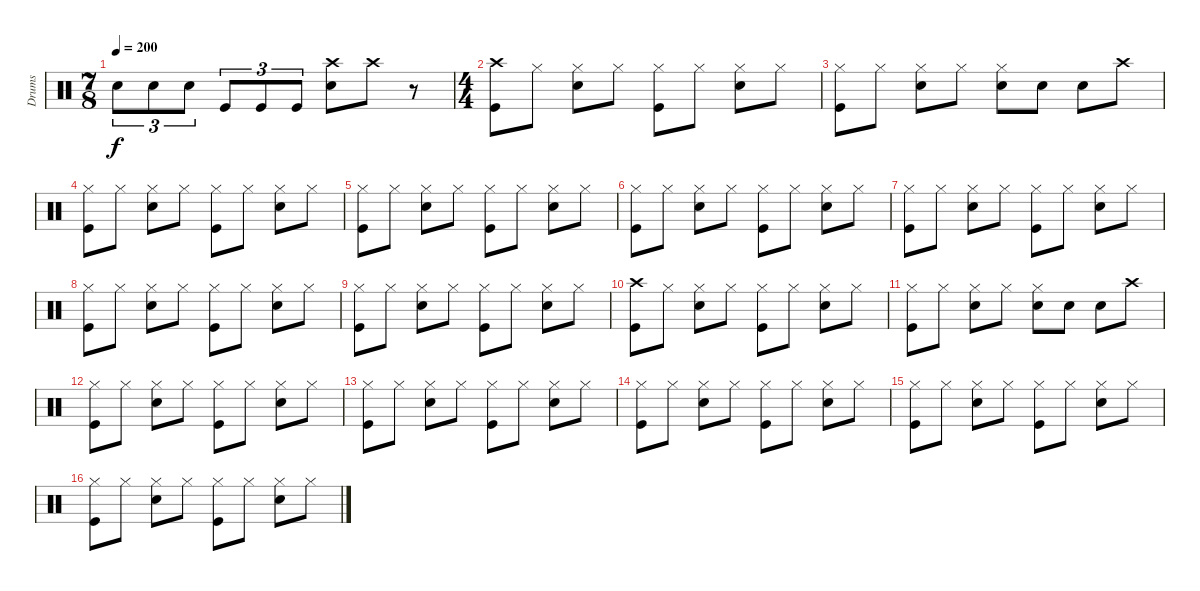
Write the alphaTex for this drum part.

\track ("Drums" "Drums") {instrument percussion}
\staff {score}
\articulation defaults
\ts (7 8)
\tempo 200
\clef neutral
\ks c "Snare (hit) 2".8{tu (3 2) dy f} "Snare (hit) 2".8{tu (3 2)} "Snare (hit) 2".8{tu (3 2)} "Kick (hit)".8{tu (3 2)} "Kick (hit)".8{tu (3 2)} "Kick (hit)".8{tu (3 2)}
("Crash high (hit)" "Snare (hit) 2").8 "Crash high (hit)".8 r.8 |
\ts (4 4)
("Crash high (hit)" "Kick (hit)").8 "Hi-Hat (closed)".8 ("Hi-Hat (closed)" "Snare (hit) 2").8 "Hi-Hat (closed)".8 ("Hi-Hat (closed)" "Kick (hit)").8 "Hi-Hat (closed)".8 ("Hi-Hat (closed)" "Snare (hit) 2").8 "Hi-Hat (closed)".8 |
("Hi-Hat (closed)" "Kick (hit)").8 "Hi-Hat (closed)".8 ("Hi-Hat (closed)" "Snare (hit) 2").8 "Hi-Hat (closed)".8 ("Hi-Hat (closed)" "Snare (hit) 2").8 "Snare (hit) 2".8 "Snare (hit) 2".8 "Crash high (hit)".8 |
("Hi-Hat (closed)" "Kick (hit)").8 "Hi-Hat (closed)".8 ("Hi-Hat (closed)" "Snare (hit) 2").8 "Hi-Hat (closed)".8 ("Hi-Hat (closed)" "Kick (hit)").8 "Hi-Hat (closed)".8 ("Hi-Hat (closed)" "Snare (hit) 2").8 "Hi-Hat (closed)".8 |
("Hi-Hat (closed)" "Kick (hit)").8 "Hi-Hat (closed)".8 ("Hi-Hat (closed)" "Snare (hit) 2").8 "Hi-Hat (closed)".8 ("Hi-Hat (closed)" "Kick (hit)").8 "Hi-Hat (closed)".8 ("Hi-Hat (closed)" "Snare (hit) 2").8 "Hi-Hat (closed)".8 |
("Hi-Hat (closed)" "Kick (hit)").8 "Hi-Hat (closed)".8 ("Hi-Hat (closed)" "Snare (hit) 2").8 "Hi-Hat (closed)".8 ("Hi-Hat (closed)" "Kick (hit)").8 "Hi-Hat (closed)".8 ("Hi-Hat (closed)" "Snare (hit) 2").8 "Hi-Hat (closed)".8 |
("Hi-Hat (closed)" "Kick (hit)").8 "Hi-Hat (closed)".8 ("Hi-Hat (closed)" "Snare (hit) 2").8 "Hi-Hat (closed)".8 ("Hi-Hat (closed)" "Kick (hit)").8 "Hi-Hat (closed)".8 ("Hi-Hat (closed)" "Snare (hit) 2").8 "Hi-Hat (closed)".8 |
("Hi-Hat (closed)" "Kick (hit)").8 "Hi-Hat (closed)".8 ("Hi-Hat (closed)" "Snare (hit) 2").8 "Hi-Hat (closed)".8 ("Hi-Hat (closed)" "Kick (hit)").8 "Hi-Hat (closed)".8 ("Hi-Hat (closed)" "Snare (hit) 2").8 "Hi-Hat (closed)".8 |
("Hi-Hat (closed)" "Kick (hit)").8 "Hi-Hat (closed)".8 ("Hi-Hat (closed)" "Snare (hit) 2").8 "Hi-Hat (closed)".8 ("Hi-Hat (closed)" "Kick (hit)").8 "Hi-Hat (closed)".8 ("Hi-Hat (closed)" "Snare (hit) 2").8 "Hi-Hat (closed)".8 |
("Crash high (hit)" "Kick (hit)").8 "Hi-Hat (closed)".8 ("Hi-Hat (closed)" "Snare (hit) 2").8 "Hi-Hat (closed)".8 ("Hi-Hat (closed)" "Kick (hit)").8 "Hi-Hat (closed)".8 ("Hi-Hat (closed)" "Snare (hit) 2").8 "Hi-Hat (closed)".8 |
("Hi-Hat (closed)" "Kick (hit)").8 "Hi-Hat (closed)".8 ("Hi-Hat (closed)" "Snare (hit) 2").8 "Hi-Hat (closed)".8 ("Hi-Hat (closed)" "Snare (hit) 2").8 "Snare (hit) 2".8 "Snare (hit) 2".8 "Crash high (hit)".8 |
("Hi-Hat (closed)" "Kick (hit)").8 "Hi-Hat (closed)".8 ("Hi-Hat (closed)" "Snare (hit) 2").8 "Hi-Hat (closed)".8 ("Hi-Hat (closed)" "Kick (hit)").8 "Hi-Hat (closed)".8 ("Hi-Hat (closed)" "Snare (hit) 2").8 "Hi-Hat (closed)".8 |
("Hi-Hat (closed)" "Kick (hit)").8 "Hi-Hat (closed)".8 ("Hi-Hat (closed)" "Snare (hit) 2").8 "Hi-Hat (closed)".8 ("Hi-Hat (closed)" "Kick (hit)").8 "Hi-Hat (closed)".8 ("Hi-Hat (closed)" "Snare (hit) 2").8 "Hi-Hat (closed)".8 |
("Hi-Hat (closed)" "Kick (hit)").8 "Hi-Hat (closed)".8 ("Hi-Hat (closed)" "Snare (hit) 2").8 "Hi-Hat (closed)".8 ("Hi-Hat (closed)" "Kick (hit)").8 "Hi-Hat (closed)".8 ("Hi-Hat (closed)" "Snare (hit) 2").8 "Hi-Hat (closed)".8 |
("Hi-Hat (closed)" "Kick (hit)").8 "Hi-Hat (closed)".8 ("Hi-Hat (closed)" "Snare (hit) 2").8 "Hi-Hat (closed)".8 ("Hi-Hat (closed)" "Kick (hit)").8 "Hi-Hat (closed)".8 ("Hi-Hat (closed)" "Snare (hit) 2").8 "Hi-Hat (closed)".8 |
("Hi-Hat (closed)" "Kick (hit)").8 "Hi-Hat (closed)".8 ("Hi-Hat (closed)" "Snare (hit) 2").8 "Hi-Hat (closed)".8 ("Hi-Hat (closed)" "Kick (hit)").8 "Hi-Hat (closed)".8 ("Hi-Hat (closed)" "Snare (hit) 2").8 "Hi-Hat (closed)".8
